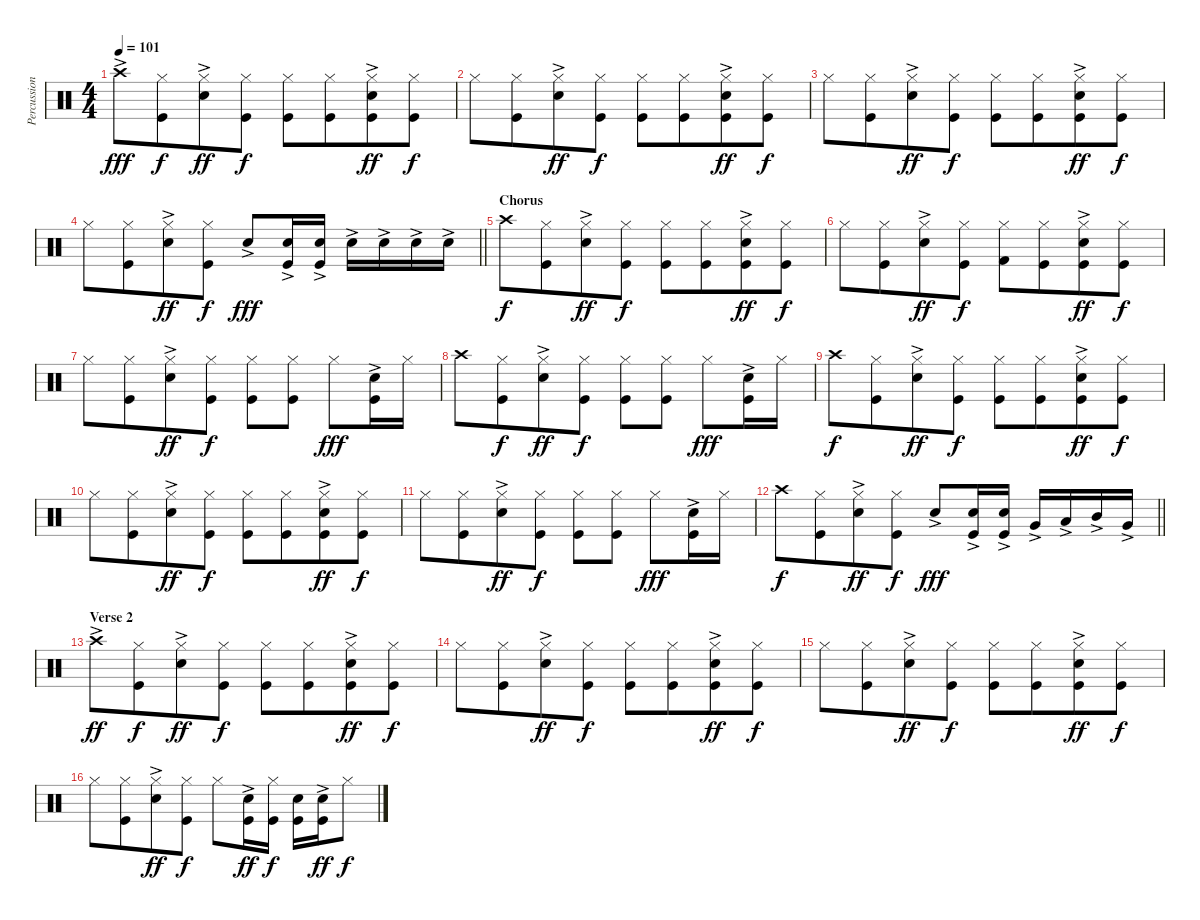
\track ("Percussion" "Percussion") {instrument percussion}
\staff {score}
\articulation defaults
\ts (4 4)
\tempo 101
\clef neutral
\ks c "Crash high (hit)"{ac}.8{dy fff}
("Hi-Hat (closed)" "Kick (hit)").8{dy f beam merge} ("Hi-Hat (closed)" "Snare (hit) 2"{ac}).8{dy ff} ("Hi-Hat (closed)" "Kick (hit)").8{dy f beam split} ("Hi-Hat (closed)" "Kick (hit)").8 ("Hi-Hat (closed)" "Kick (hit)").8{beam merge} ("Hi-Hat (closed)" "Snare (hit) 2"{ac} "Kick (hit)").8{dy ff} ("Hi-Hat (closed)" "Kick (hit)").8{dy f} |
"Hi-Hat (closed)".8 ("Hi-Hat (closed)" "Kick (hit)").8{beam merge} ("Hi-Hat (closed)" "Snare (hit) 2"{ac}).8{dy ff} ("Hi-Hat (closed)" "Kick (hit)").8{dy f} ("Hi-Hat (closed)" "Kick (hit)").8 ("Hi-Hat (closed)" "Kick (hit)").8{beam merge} ("Hi-Hat (closed)" "Snare (hit) 2"{ac} "Kick (hit)").8{dy ff} ("Hi-Hat (closed)" "Kick (hit)").8{dy f} |
"Hi-Hat (closed)".8 ("Hi-Hat (closed)" "Kick (hit)").8{beam merge} ("Hi-Hat (closed)" "Snare (hit) 2"{ac}).8{dy ff} ("Hi-Hat (closed)" "Kick (hit)").8{dy f} ("Hi-Hat (closed)" "Kick (hit)").8 ("Hi-Hat (closed)" "Kick (hit)").8{beam merge} ("Hi-Hat (closed)" "Snare (hit) 2"{ac} "Kick (hit)").8{dy ff} ("Hi-Hat (closed)" "Kick (hit)").8{dy f} |
\barLineRight lightlight "Hi-Hat (closed)".8
("Hi-Hat (closed)" "Kick (hit)").8{beam merge} ("Hi-Hat (closed)" "Snare (hit) 2"{ac}).8{dy ff} ("Hi-Hat (closed)" "Kick (hit)").8{dy f} "Snare (hit) 2"{ac}.8{dy fff} ("Snare (hit) 2"{ac} "Kick (hit)").16 ("Snare (hit) 2"{ac} "Kick (hit)").16 "Snare (hit) 2"{ac}.16 "Snare (hit) 2"{ac}.16 "Snare (hit) 2"{ac}.16 "Snare (hit) 2"{ac}.16 |
\section ("" "Chorus")
"Crash high (hit)".8{dy f} ("Hi-Hat (closed)" "Kick (hit)").8{beam merge} ("Hi-Hat (closed)" "Snare (hit) 2"{ac}).8{dy ff} ("Hi-Hat (closed)" "Kick (hit)").8{dy f} ("Hi-Hat (closed)" "Kick (hit)").8 ("Hi-Hat (closed)" "Kick (hit)").8{beam merge} ("Hi-Hat (closed)" "Snare (hit) 2"{ac} "Kick (hit)").8{dy ff} ("Hi-Hat (closed)" "Kick (hit)").8{dy f} |
"Hi-Hat (closed)".8 ("Hi-Hat (closed)" "Kick (hit)").8{beam merge} ("Hi-Hat (closed)" "Snare (hit) 2"{ac}).8{dy ff} ("Hi-Hat (closed)" "Kick (hit)").8{dy f} ("Hi-Hat (closed)" "Kick (hit) 2").8 ("Hi-Hat (closed)" "Kick (hit)").8{beam merge} ("Hi-Hat (closed)" "Snare (hit) 2"{ac} "Kick (hit)").8{dy ff} ("Hi-Hat (closed)" "Kick (hit)").8{dy f} |
"Hi-Hat (closed)".8 ("Hi-Hat (closed)" "Kick (hit)").8{beam merge} ("Hi-Hat (closed)" "Snare (hit) 2"{ac}).8{dy ff} ("Hi-Hat (closed)" "Kick (hit)").8{dy f} ("Hi-Hat (closed)" "Kick (hit)").8 ("Hi-Hat (closed)" "Kick (hit)").8 "Hi-Hat (closed)".8{dy fff} ("Snare (hit) 2"{ac} "Kick (hit)").16 "Hi-Hat (closed)".16 |
"Crash high (hit)".8 ("Hi-Hat (closed)" "Kick (hit)").8{dy f beam merge} ("Hi-Hat (closed)" "Snare (hit) 2"{ac}).8{dy ff} ("Hi-Hat (closed)" "Kick (hit)").8{dy f} ("Hi-Hat (closed)" "Kick (hit)").8 ("Hi-Hat (closed)" "Kick (hit)").8 "Hi-Hat (closed)".8{dy fff} ("Snare (hit) 2"{ac} "Kick (hit)").16 "Hi-Hat (closed)".16 |
"Crash high (hit)".8{dy f} ("Hi-Hat (closed)" "Kick (hit)").8{beam merge} ("Hi-Hat (closed)" "Snare (hit) 2"{ac}).8{dy ff} ("Hi-Hat (closed)" "Kick (hit)").8{dy f} ("Hi-Hat (closed)" "Kick (hit)").8 ("Hi-Hat (closed)" "Kick (hit)").8{beam merge} ("Hi-Hat (closed)" "Snare (hit) 2"{ac} "Kick (hit)").8{dy ff} ("Hi-Hat (closed)" "Kick (hit)").8{dy f} |
"Hi-Hat (closed)".8 ("Hi-Hat (closed)" "Kick (hit)").8{beam merge} ("Hi-Hat (closed)" "Snare (hit) 2"{ac}).8{dy ff} ("Hi-Hat (closed)" "Kick (hit)").8{dy f} ("Hi-Hat (closed)" "Kick (hit)").8 ("Hi-Hat (closed)" "Kick (hit)").8{beam merge} ("Hi-Hat (closed)" "Snare (hit) 2"{ac} "Kick (hit)").8{dy ff} ("Hi-Hat (closed)" "Kick (hit)").8{dy f} |
"Hi-Hat (closed)".8 ("Hi-Hat (closed)" "Kick (hit)").8{beam merge} ("Hi-Hat (closed)" "Snare (hit) 2"{ac}).8{dy ff} ("Hi-Hat (closed)" "Kick (hit)").8{dy f} ("Hi-Hat (closed)" "Kick (hit)").8 ("Hi-Hat (closed)" "Kick (hit)").8 "Hi-Hat (closed)".8{dy fff} ("Snare (hit) 2"{ac} "Kick (hit)").16 "Hi-Hat (closed)".16 |
\barLineRight lightlight "Crash high (hit)".8{dy f}
("Hi-Hat (closed)" "Kick (hit)").8{beam merge} ("Hi-Hat (closed)" "Snare (hit) 2"{ac}).8{dy ff} ("Hi-Hat (closed)" "Kick (hit)").8{dy f} "Snare (hit) 2"{ac}.8{dy fff} ("Snare (hit) 2"{ac} "Kick (hit)").16 ("Snare (hit) 2"{ac} "Kick (hit)").16 "Very Low Tom (hit)"{ac}.16 "Low Tom (hit)"{ac}.16 "Mid Tom (hit)"{ac}.16 "Very Low Tom (hit)"{ac}.16 |
\section ("" "Verse 2")
"Crash high (hit)"{ac}.8{dy ff} ("Hi-Hat (closed)" "Kick (hit)").8{dy f beam merge} ("Hi-Hat (closed)" "Snare (hit) 2"{ac}).8{dy ff} ("Hi-Hat (closed)" "Kick (hit)").8{dy f beam split} ("Hi-Hat (closed)" "Kick (hit)").8 ("Hi-Hat (closed)" "Kick (hit)").8{beam merge} ("Hi-Hat (closed)" "Snare (hit) 2"{ac} "Kick (hit)").8{dy ff} ("Hi-Hat (closed)" "Kick (hit)").8{dy f} |
"Hi-Hat (closed)".8 ("Hi-Hat (closed)" "Kick (hit)").8{beam merge} ("Hi-Hat (closed)" "Snare (hit) 2"{ac}).8{dy ff} ("Hi-Hat (closed)" "Kick (hit)").8{dy f} ("Hi-Hat (closed)" "Kick (hit)").8 ("Hi-Hat (closed)" "Kick (hit)").8{beam merge} ("Hi-Hat (closed)" "Snare (hit) 2"{ac} "Kick (hit)").8{dy ff} ("Hi-Hat (closed)" "Kick (hit)").8{dy f} |
"Hi-Hat (closed)".8 ("Hi-Hat (closed)" "Kick (hit)").8{beam merge} ("Hi-Hat (closed)" "Snare (hit) 2"{ac}).8{dy ff} ("Hi-Hat (closed)" "Kick (hit)").8{dy f} ("Hi-Hat (closed)" "Kick (hit)").8 ("Hi-Hat (closed)" "Kick (hit)").8{beam merge} ("Hi-Hat (closed)" "Snare (hit) 2"{ac} "Kick (hit)").8{dy ff} ("Hi-Hat (closed)" "Kick (hit)").8{dy f} |
"Hi-Hat (closed)".8 ("Hi-Hat (closed)" "Kick (hit)").8{beam merge} ("Hi-Hat (closed)" "Snare (hit) 2"{ac}).8{dy ff} ("Hi-Hat (closed)" "Kick (hit)").8{dy f} "Hi-Hat (closed)".8 ("Snare (hit) 2"{ac} "Kick (hit)").16{dy ff} ("Hi-Hat (closed)" "Kick (hit)").16{dy f} ("Snare (hit) 2" "Kick (hit)").16 ("Snare (hit) 2"{ac} "Kick (hit)").16{dy ff} "Hi-Hat (closed)".8{dy f}
